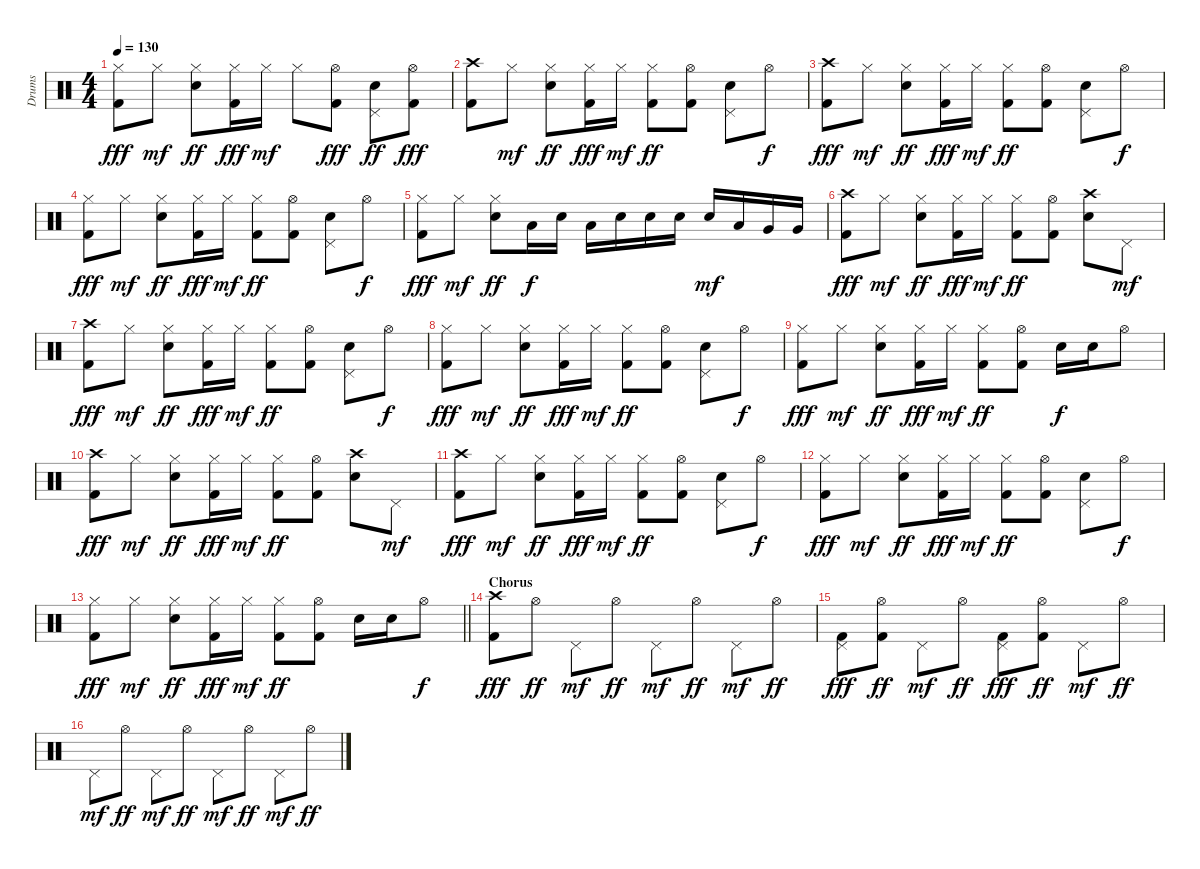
\track ("Drums" "Drums") {instrument percussion}
\staff {score}
\articulation defaults
\ts (4 4)
\tempo 130
\clef neutral
\ks c
("Hi-Hat (closed)" "Kick (hit) 2").8{dy fff} "Hi-Hat (closed)".8{dy mf} ("Hi-Hat (closed)" "Snare (hit) 2").8{dy ff} ("Hi-Hat (closed)" "Kick (hit) 2").16{dy fff} "Hi-Hat (closed)".16{dy mf} "Hi-Hat (closed)".8 ("Hi-Hat (open)" "Kick (hit) 2").8{dy fff} ("Pedal Hi-Hat (hit)" "Snare (hit) 2").8{dy ff} ("Hi-Hat (open)" "Kick (hit) 2").8{dy fff} |
("Crash high (hit)" "Kick (hit) 2").8 "Hi-Hat (closed)".8{dy mf} ("Hi-Hat (closed)" "Snare (hit) 2").8{dy ff} ("Hi-Hat (closed)" "Kick (hit) 2").16{dy fff} "Hi-Hat (closed)".16{dy mf} ("Hi-Hat (closed)" "Kick (hit) 2").8{dy ff} ("Hi-Hat (open)" "Kick (hit) 2").8 ("Pedal Hi-Hat (hit)" "Snare (hit) 2").8 "Hi-Hat (open)".8{dy f} |
("Crash high (hit)" "Kick (hit) 2").8{dy fff} "Hi-Hat (closed)".8{dy mf} ("Hi-Hat (closed)" "Snare (hit) 2").8{dy ff} ("Hi-Hat (closed)" "Kick (hit) 2").16{dy fff} "Hi-Hat (closed)".16{dy mf} ("Hi-Hat (closed)" "Kick (hit) 2").8{dy ff} ("Hi-Hat (open)" "Kick (hit) 2").8 ("Pedal Hi-Hat (hit)" "Snare (hit) 2").8 "Hi-Hat (open)".8{dy f} |
("Hi-Hat (closed)" "Kick (hit) 2").8{dy fff} "Hi-Hat (closed)".8{dy mf} ("Hi-Hat (closed)" "Snare (hit) 2").8{dy ff} ("Hi-Hat (closed)" "Kick (hit) 2").16{dy fff} "Hi-Hat (closed)".16{dy mf} ("Hi-Hat (closed)" "Kick (hit) 2").8{dy ff} ("Hi-Hat (open)" "Kick (hit) 2").8 ("Pedal Hi-Hat (hit)" "Snare (hit) 2").8 "Hi-Hat (open)".8{dy f} |
("Hi-Hat (closed)" "Kick (hit) 2").8{dy fff} "Hi-Hat (closed)".8{dy mf} ("Hi-Hat (closed)" "Snare (hit) 2").8{dy ff} "Low Tom (hit)".16{dy f} "Snare (hit) 2".16 "Low Tom (hit)".16 "Snare (hit) 2".16 "Snare (hit) 2".16 "Snare (hit) 2".16 "Snare (hit) 2".16{dy mf} "Low Tom (hit)".16 "Very Low Tom (hit)".16 "Very Low Tom (hit)".16 |
("Crash high (hit)" "Kick (hit) 2").8{dy fff} "Hi-Hat (closed)".8{dy mf} ("Hi-Hat (closed)" "Snare (hit) 2").8{dy ff} ("Hi-Hat (closed)" "Kick (hit) 2").16{dy fff} "Hi-Hat (closed)".16{dy mf} ("Hi-Hat (closed)" "Kick (hit) 2").8{dy ff} ("Hi-Hat (open)" "Kick (hit) 2").8 ("Crash high (hit)" "Snare (hit) 2").8 "Pedal Hi-Hat (hit)".8{dy mf} |
("Crash high (hit)" "Kick (hit) 2").8{dy fff} "Hi-Hat (closed)".8{dy mf} ("Hi-Hat (closed)" "Snare (hit) 2").8{dy ff} ("Hi-Hat (closed)" "Kick (hit) 2").16{dy fff} "Hi-Hat (closed)".16{dy mf} ("Hi-Hat (closed)" "Kick (hit) 2").8{dy ff} ("Hi-Hat (open)" "Kick (hit) 2").8 ("Pedal Hi-Hat (hit)" "Snare (hit) 2").8 "Hi-Hat (open)".8{dy f} |
("Hi-Hat (closed)" "Kick (hit) 2").8{dy fff} "Hi-Hat (closed)".8{dy mf} ("Hi-Hat (closed)" "Snare (hit) 2").8{dy ff} ("Hi-Hat (closed)" "Kick (hit) 2").16{dy fff} "Hi-Hat (closed)".16{dy mf} ("Hi-Hat (closed)" "Kick (hit) 2").8{dy ff} ("Hi-Hat (open)" "Kick (hit) 2").8 ("Pedal Hi-Hat (hit)" "Snare (hit) 2").8 "Hi-Hat (open)".8{dy f} |
("Hi-Hat (closed)" "Kick (hit) 2").8{dy fff} "Hi-Hat (closed)".8{dy mf} ("Hi-Hat (closed)" "Snare (hit) 2").8{dy ff} ("Hi-Hat (closed)" "Kick (hit) 2").16{dy fff} "Hi-Hat (closed)".16{dy mf} ("Hi-Hat (closed)" "Kick (hit) 2").8{dy ff} ("Hi-Hat (open)" "Kick (hit) 2").8 "Snare (hit) 2".16{dy f} "Snare (hit) 2".16 "Hi-Hat (open)".8 |
("Crash high (hit)" "Kick (hit) 2").8{dy fff} "Hi-Hat (closed)".8{dy mf} ("Hi-Hat (closed)" "Snare (hit) 2").8{dy ff} ("Hi-Hat (closed)" "Kick (hit) 2").16{dy fff} "Hi-Hat (closed)".16{dy mf} ("Hi-Hat (closed)" "Kick (hit) 2").8{dy ff} ("Hi-Hat (open)" "Kick (hit) 2").8 ("Crash high (hit)" "Snare (hit) 2").8 "Pedal Hi-Hat (hit)".8{dy mf} |
("Crash high (hit)" "Kick (hit) 2").8{dy fff} "Hi-Hat (closed)".8{dy mf} ("Hi-Hat (closed)" "Snare (hit) 2").8{dy ff} ("Hi-Hat (closed)" "Kick (hit) 2").16{dy fff} "Hi-Hat (closed)".16{dy mf} ("Hi-Hat (closed)" "Kick (hit) 2").8{dy ff} ("Hi-Hat (open)" "Kick (hit) 2").8 ("Pedal Hi-Hat (hit)" "Snare (hit) 2").8 "Hi-Hat (open)".8{dy f} |
("Hi-Hat (closed)" "Kick (hit) 2").8{dy fff} "Hi-Hat (closed)".8{dy mf} ("Hi-Hat (closed)" "Snare (hit) 2").8{dy ff} ("Hi-Hat (closed)" "Kick (hit) 2").16{dy fff} "Hi-Hat (closed)".16{dy mf} ("Hi-Hat (closed)" "Kick (hit) 2").8{dy ff} ("Hi-Hat (open)" "Kick (hit) 2").8 ("Pedal Hi-Hat (hit)" "Snare (hit) 2").8 "Hi-Hat (open)".8{dy f} |
\barLineRight lightlight
("Hi-Hat (closed)" "Kick (hit) 2").8{dy fff} "Hi-Hat (closed)".8{dy mf} ("Hi-Hat (closed)" "Snare (hit) 2").8{dy ff} ("Hi-Hat (closed)" "Kick (hit) 2").16{dy fff} "Hi-Hat (closed)".16{dy mf} ("Hi-Hat (closed)" "Kick (hit) 2").8{dy ff} ("Hi-Hat (open)" "Kick (hit) 2").8 "Snare (hit) 2".16 "Snare (hit) 2".16 "Hi-Hat (open)".8{dy f} |
\section ("" "Chorus")
("Crash high (hit)" "Kick (hit) 2").8{dy fff} "Hi-Hat (open)".8{dy ff} "Pedal Hi-Hat (hit)".8{dy mf} "Hi-Hat (open)".8{dy ff} "Pedal Hi-Hat (hit)".8{dy mf} "Hi-Hat (open)".8{dy ff} "Pedal Hi-Hat (hit)".8{dy mf} "Hi-Hat (open)".8{dy ff} |
("Pedal Hi-Hat (hit)" "Kick (hit) 2").8{dy fff} ("Hi-Hat (open)" "Kick (hit) 2").8{dy ff} "Pedal Hi-Hat (hit)".8{dy mf} "Hi-Hat (open)".8{dy ff} ("Pedal Hi-Hat (hit)" "Kick (hit) 2").8{dy fff} ("Hi-Hat (open)" "Kick (hit) 2").8{dy ff} "Pedal Hi-Hat (hit)".8{dy mf} "Hi-Hat (open)".8{dy ff} |
"Pedal Hi-Hat (hit)".8{dy mf} "Hi-Hat (open)".8{dy ff} "Pedal Hi-Hat (hit)".8{dy mf} "Hi-Hat (open)".8{dy ff} "Pedal Hi-Hat (hit)".8{dy mf} "Hi-Hat (open)".8{dy ff} "Pedal Hi-Hat (hit)".8{dy mf} "Hi-Hat (open)".8{dy ff}
